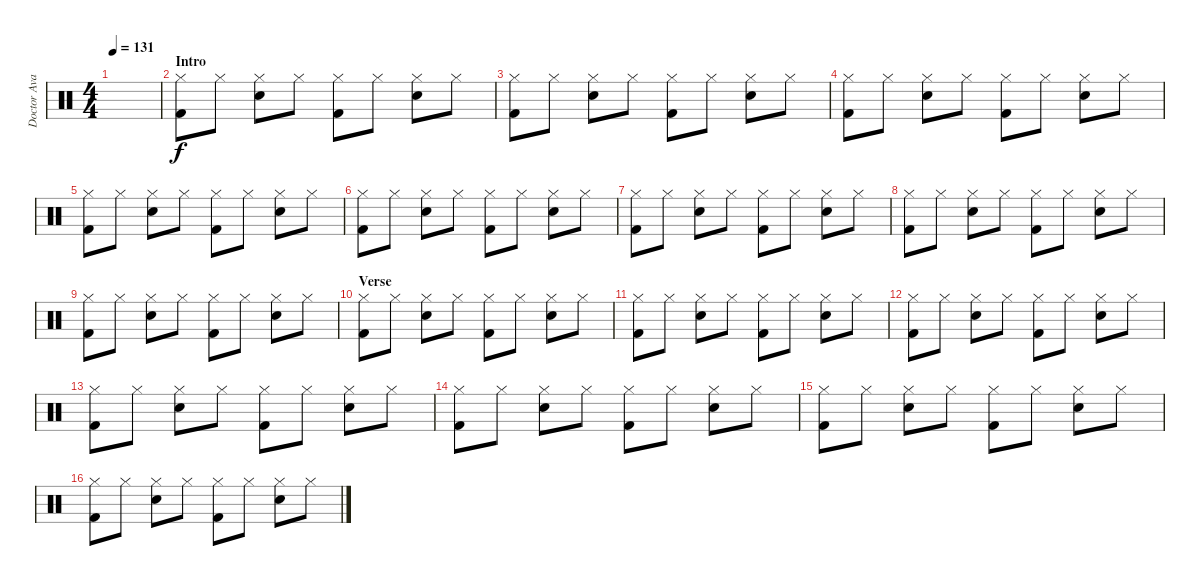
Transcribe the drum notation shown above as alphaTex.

\track ("Doctor Avalanche" "Doctor Ava") {instrument percussion}
\staff {score}
\articulation defaults
\ts (4 4)
\tempo 131
\clef neutral
\ks c
|
\section ("" "Intro")
("Kick (hit) 2" "Hi-Hat (closed)").8 "Hi-Hat (closed)".8 ("Snare (hit) 2" "Hi-Hat (closed)").8 "Hi-Hat (closed)".8 ("Kick (hit) 2" "Hi-Hat (closed)").8 "Hi-Hat (closed)".8 ("Snare (hit) 2" "Hi-Hat (closed)").8 "Hi-Hat (closed)".8 |
("Kick (hit) 2" "Hi-Hat (closed)").8 "Hi-Hat (closed)".8 ("Snare (hit) 2" "Hi-Hat (closed)").8 "Hi-Hat (closed)".8 ("Kick (hit) 2" "Hi-Hat (closed)").8 "Hi-Hat (closed)".8 ("Snare (hit) 2" "Hi-Hat (closed)").8 "Hi-Hat (closed)".8 |
("Kick (hit) 2" "Hi-Hat (closed)").8 "Hi-Hat (closed)".8 ("Snare (hit) 2" "Hi-Hat (closed)").8 "Hi-Hat (closed)".8 ("Kick (hit) 2" "Hi-Hat (closed)").8 "Hi-Hat (closed)".8 ("Snare (hit) 2" "Hi-Hat (closed)").8 "Hi-Hat (closed)".8 |
("Kick (hit) 2" "Hi-Hat (closed)").8 "Hi-Hat (closed)".8 ("Snare (hit) 2" "Hi-Hat (closed)").8 "Hi-Hat (closed)".8 ("Kick (hit) 2" "Hi-Hat (closed)").8 "Hi-Hat (closed)".8 ("Snare (hit) 2" "Hi-Hat (closed)").8 "Hi-Hat (closed)".8 |
("Kick (hit) 2" "Hi-Hat (closed)").8 "Hi-Hat (closed)".8 ("Snare (hit) 2" "Hi-Hat (closed)").8 "Hi-Hat (closed)".8 ("Kick (hit) 2" "Hi-Hat (closed)").8 "Hi-Hat (closed)".8 ("Snare (hit) 2" "Hi-Hat (closed)").8 "Hi-Hat (closed)".8 |
("Kick (hit) 2" "Hi-Hat (closed)").8 "Hi-Hat (closed)".8 ("Snare (hit) 2" "Hi-Hat (closed)").8 "Hi-Hat (closed)".8 ("Kick (hit) 2" "Hi-Hat (closed)").8 "Hi-Hat (closed)".8 ("Snare (hit) 2" "Hi-Hat (closed)").8 "Hi-Hat (closed)".8 |
("Kick (hit) 2" "Hi-Hat (closed)").8 "Hi-Hat (closed)".8 ("Snare (hit) 2" "Hi-Hat (closed)").8 "Hi-Hat (closed)".8 ("Kick (hit) 2" "Hi-Hat (closed)").8 "Hi-Hat (closed)".8 ("Snare (hit) 2" "Hi-Hat (closed)").8 "Hi-Hat (closed)".8 |
("Kick (hit) 2" "Hi-Hat (closed)").8 "Hi-Hat (closed)".8 ("Snare (hit) 2" "Hi-Hat (closed)").8 "Hi-Hat (closed)".8 ("Kick (hit) 2" "Hi-Hat (closed)").8 "Hi-Hat (closed)".8 ("Snare (hit) 2" "Hi-Hat (closed)").8 "Hi-Hat (closed)".8 |
\section ("" "Verse")
("Kick (hit) 2" "Hi-Hat (closed)").8 "Hi-Hat (closed)".8 ("Snare (hit) 2" "Hi-Hat (closed)").8 "Hi-Hat (closed)".8 ("Kick (hit) 2" "Hi-Hat (closed)").8 "Hi-Hat (closed)".8 ("Snare (hit) 2" "Hi-Hat (closed)").8 "Hi-Hat (closed)".8 |
("Kick (hit) 2" "Hi-Hat (closed)").8 "Hi-Hat (closed)".8 ("Snare (hit) 2" "Hi-Hat (closed)").8 "Hi-Hat (closed)".8 ("Kick (hit) 2" "Hi-Hat (closed)").8 "Hi-Hat (closed)".8 ("Snare (hit) 2" "Hi-Hat (closed)").8 "Hi-Hat (closed)".8 |
("Kick (hit) 2" "Hi-Hat (closed)").8 "Hi-Hat (closed)".8 ("Snare (hit) 2" "Hi-Hat (closed)").8 "Hi-Hat (closed)".8 ("Kick (hit) 2" "Hi-Hat (closed)").8 "Hi-Hat (closed)".8 ("Snare (hit) 2" "Hi-Hat (closed)").8 "Hi-Hat (closed)".8 |
("Kick (hit) 2" "Hi-Hat (closed)").8 "Hi-Hat (closed)".8 ("Snare (hit) 2" "Hi-Hat (closed)").8 "Hi-Hat (closed)".8 ("Kick (hit) 2" "Hi-Hat (closed)").8 "Hi-Hat (closed)".8 ("Snare (hit) 2" "Hi-Hat (closed)").8 "Hi-Hat (closed)".8 |
("Kick (hit) 2" "Hi-Hat (closed)").8 "Hi-Hat (closed)".8 ("Snare (hit) 2" "Hi-Hat (closed)").8 "Hi-Hat (closed)".8 ("Kick (hit) 2" "Hi-Hat (closed)").8 "Hi-Hat (closed)".8 ("Snare (hit) 2" "Hi-Hat (closed)").8 "Hi-Hat (closed)".8 |
("Kick (hit) 2" "Hi-Hat (closed)").8 "Hi-Hat (closed)".8 ("Snare (hit) 2" "Hi-Hat (closed)").8 "Hi-Hat (closed)".8 ("Kick (hit) 2" "Hi-Hat (closed)").8 "Hi-Hat (closed)".8 ("Snare (hit) 2" "Hi-Hat (closed)").8 "Hi-Hat (closed)".8 |
("Kick (hit) 2" "Hi-Hat (closed)").8 "Hi-Hat (closed)".8 ("Snare (hit) 2" "Hi-Hat (closed)").8 "Hi-Hat (closed)".8 ("Kick (hit) 2" "Hi-Hat (closed)").8 "Hi-Hat (closed)".8 ("Snare (hit) 2" "Hi-Hat (closed)").8 "Hi-Hat (closed)".8
